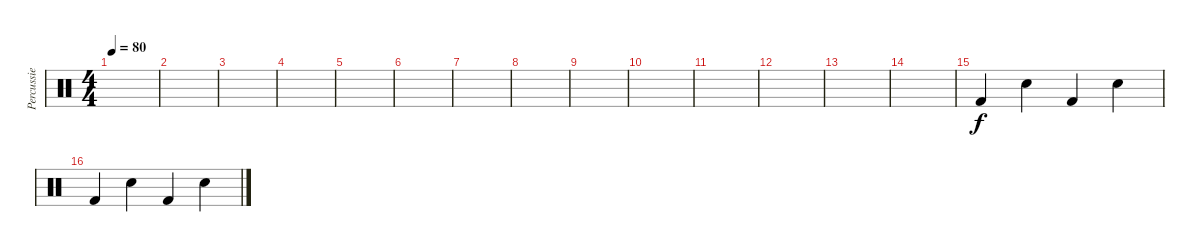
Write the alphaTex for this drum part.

\track ("Percussie" "Percussie") {instrument percussion}
\staff {score}
\articulation defaults
\ts (4 4)
\tempo 80
\clef neutral
\ks c
|
|
|
|
|
|
|
|
|
|
|
|
|
|
"Kick (hit) 2".4 "Electric Snare (hit)".4 "Kick (hit) 2".4 "Electric Snare (hit)".4 |
"Kick (hit) 2".4 "Electric Snare (hit)".4 "Kick (hit) 2".4 "Electric Snare (hit)".4
